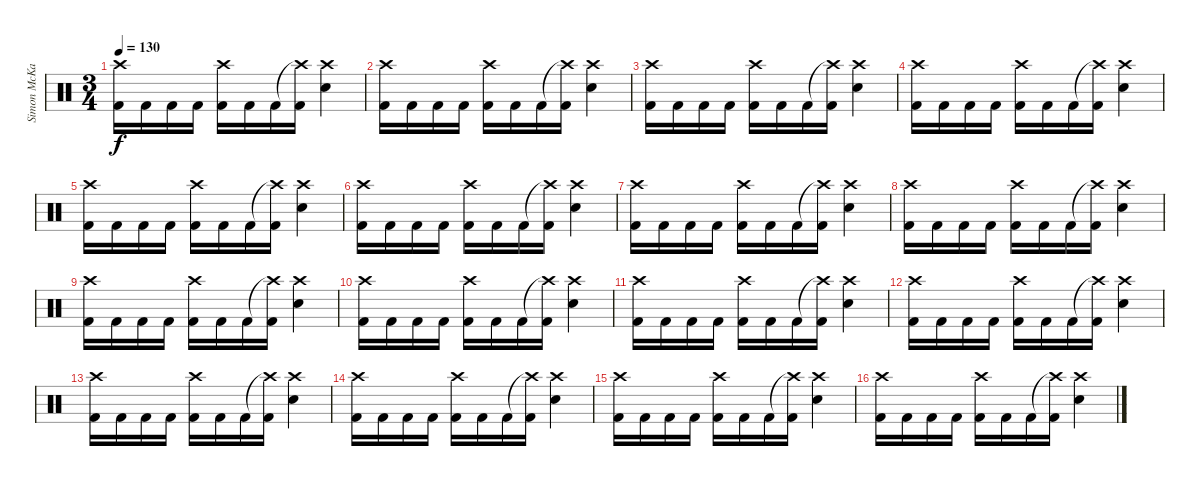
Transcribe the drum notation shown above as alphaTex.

\track ("Simon McKay" "Simon McKa") {instrument percussion}
\staff {score}
\articulation defaults
\ts (3 4)
\tempo 130
\clef neutral
\ks c
("Crash high (hit)" "Kick (hit) 2").16{dy f} "Kick (hit) 2".16 "Kick (hit) 2".16 "Kick (hit) 2".16 ("Crash high (hit)" "Kick (hit) 2").16 "Kick (hit) 2".16 "Kick (hit) 2".16 ("Crash high (hit)"{t} "Kick (hit) 2").16 ("Crash high (hit)" "Snare (hit) 2").4 |
("Crash high (hit)" "Kick (hit) 2").16 "Kick (hit) 2".16 "Kick (hit) 2".16 "Kick (hit) 2".16 ("Crash high (hit)" "Kick (hit) 2").16 "Kick (hit) 2".16 "Kick (hit) 2".16 ("Crash high (hit)"{t} "Kick (hit) 2").16 ("Crash high (hit)" "Snare (hit) 2").4 |
("Crash high (hit)" "Kick (hit) 2").16 "Kick (hit) 2".16 "Kick (hit) 2".16 "Kick (hit) 2".16 ("Crash high (hit)" "Kick (hit) 2").16 "Kick (hit) 2".16 "Kick (hit) 2".16 ("Crash high (hit)"{t} "Kick (hit) 2").16 ("Crash high (hit)" "Snare (hit) 2").4 |
("Crash high (hit)" "Kick (hit) 2").16 "Kick (hit) 2".16 "Kick (hit) 2".16 "Kick (hit) 2".16 ("Crash high (hit)" "Kick (hit) 2").16 "Kick (hit) 2".16 "Kick (hit) 2".16 ("Crash high (hit)"{t} "Kick (hit) 2").16 ("Crash high (hit)" "Snare (hit) 2").4 |
("Crash high (hit)" "Kick (hit) 2").16 "Kick (hit) 2".16 "Kick (hit) 2".16 "Kick (hit) 2".16 ("Crash high (hit)" "Kick (hit) 2").16 "Kick (hit) 2".16 "Kick (hit) 2".16 ("Crash high (hit)"{t} "Kick (hit) 2").16 ("Crash high (hit)" "Snare (hit) 2").4 |
("Crash high (hit)" "Kick (hit) 2").16 "Kick (hit) 2".16 "Kick (hit) 2".16 "Kick (hit) 2".16 ("Crash high (hit)" "Kick (hit) 2").16 "Kick (hit) 2".16 "Kick (hit) 2".16 ("Crash high (hit)"{t} "Kick (hit) 2").16 ("Crash high (hit)" "Snare (hit) 2").4 |
("Crash high (hit)" "Kick (hit) 2").16 "Kick (hit) 2".16 "Kick (hit) 2".16 "Kick (hit) 2".16 ("Crash high (hit)" "Kick (hit) 2").16 "Kick (hit) 2".16 "Kick (hit) 2".16 ("Crash high (hit)"{t} "Kick (hit) 2").16 ("Crash high (hit)" "Snare (hit) 2").4 |
("Crash high (hit)" "Kick (hit) 2").16 "Kick (hit) 2".16 "Kick (hit) 2".16 "Kick (hit) 2".16 ("Crash high (hit)" "Kick (hit) 2").16 "Kick (hit) 2".16 "Kick (hit) 2".16 ("Crash high (hit)"{t} "Kick (hit) 2").16 ("Crash high (hit)" "Snare (hit) 2").4 |
("Crash high (hit)" "Kick (hit) 2").16 "Kick (hit) 2".16 "Kick (hit) 2".16 "Kick (hit) 2".16 ("Crash high (hit)" "Kick (hit) 2").16 "Kick (hit) 2".16 "Kick (hit) 2".16 ("Crash high (hit)"{t} "Kick (hit) 2").16 ("Crash high (hit)" "Snare (hit) 2").4 |
("Crash high (hit)" "Kick (hit) 2").16 "Kick (hit) 2".16 "Kick (hit) 2".16 "Kick (hit) 2".16 ("Crash high (hit)" "Kick (hit) 2").16 "Kick (hit) 2".16 "Kick (hit) 2".16 ("Crash high (hit)"{t} "Kick (hit) 2").16 ("Crash high (hit)" "Snare (hit) 2").4 |
("Crash high (hit)" "Kick (hit) 2").16 "Kick (hit) 2".16 "Kick (hit) 2".16 "Kick (hit) 2".16 ("Crash high (hit)" "Kick (hit) 2").16 "Kick (hit) 2".16 "Kick (hit) 2".16 ("Crash high (hit)"{t} "Kick (hit) 2").16 ("Crash high (hit)" "Snare (hit) 2").4 |
("Crash high (hit)" "Kick (hit) 2").16 "Kick (hit) 2".16 "Kick (hit) 2".16 "Kick (hit) 2".16 ("Crash high (hit)" "Kick (hit) 2").16 "Kick (hit) 2".16 "Kick (hit) 2".16 ("Crash high (hit)"{t} "Kick (hit) 2").16 ("Crash high (hit)" "Snare (hit) 2").4 |
("Crash high (hit)" "Kick (hit) 2").16 "Kick (hit) 2".16 "Kick (hit) 2".16 "Kick (hit) 2".16 ("Crash high (hit)" "Kick (hit) 2").16 "Kick (hit) 2".16 "Kick (hit) 2".16 ("Crash high (hit)"{t} "Kick (hit) 2").16 ("Crash high (hit)" "Snare (hit) 2").4 |
("Crash high (hit)" "Kick (hit) 2").16 "Kick (hit) 2".16 "Kick (hit) 2".16 "Kick (hit) 2".16 ("Crash high (hit)" "Kick (hit) 2").16 "Kick (hit) 2".16 "Kick (hit) 2".16 ("Crash high (hit)"{t} "Kick (hit) 2").16 ("Crash high (hit)" "Snare (hit) 2").4 |
("Crash high (hit)" "Kick (hit) 2").16 "Kick (hit) 2".16 "Kick (hit) 2".16 "Kick (hit) 2".16 ("Crash high (hit)" "Kick (hit) 2").16 "Kick (hit) 2".16 "Kick (hit) 2".16 ("Crash high (hit)"{t} "Kick (hit) 2").16 ("Crash high (hit)" "Snare (hit) 2").4 |
("Crash high (hit)" "Kick (hit) 2").16 "Kick (hit) 2".16 "Kick (hit) 2".16 "Kick (hit) 2".16 ("Crash high (hit)" "Kick (hit) 2").16 "Kick (hit) 2".16 "Kick (hit) 2".16 ("Crash high (hit)"{t} "Kick (hit) 2").16 ("Crash high (hit)" "Snare (hit) 2").4
